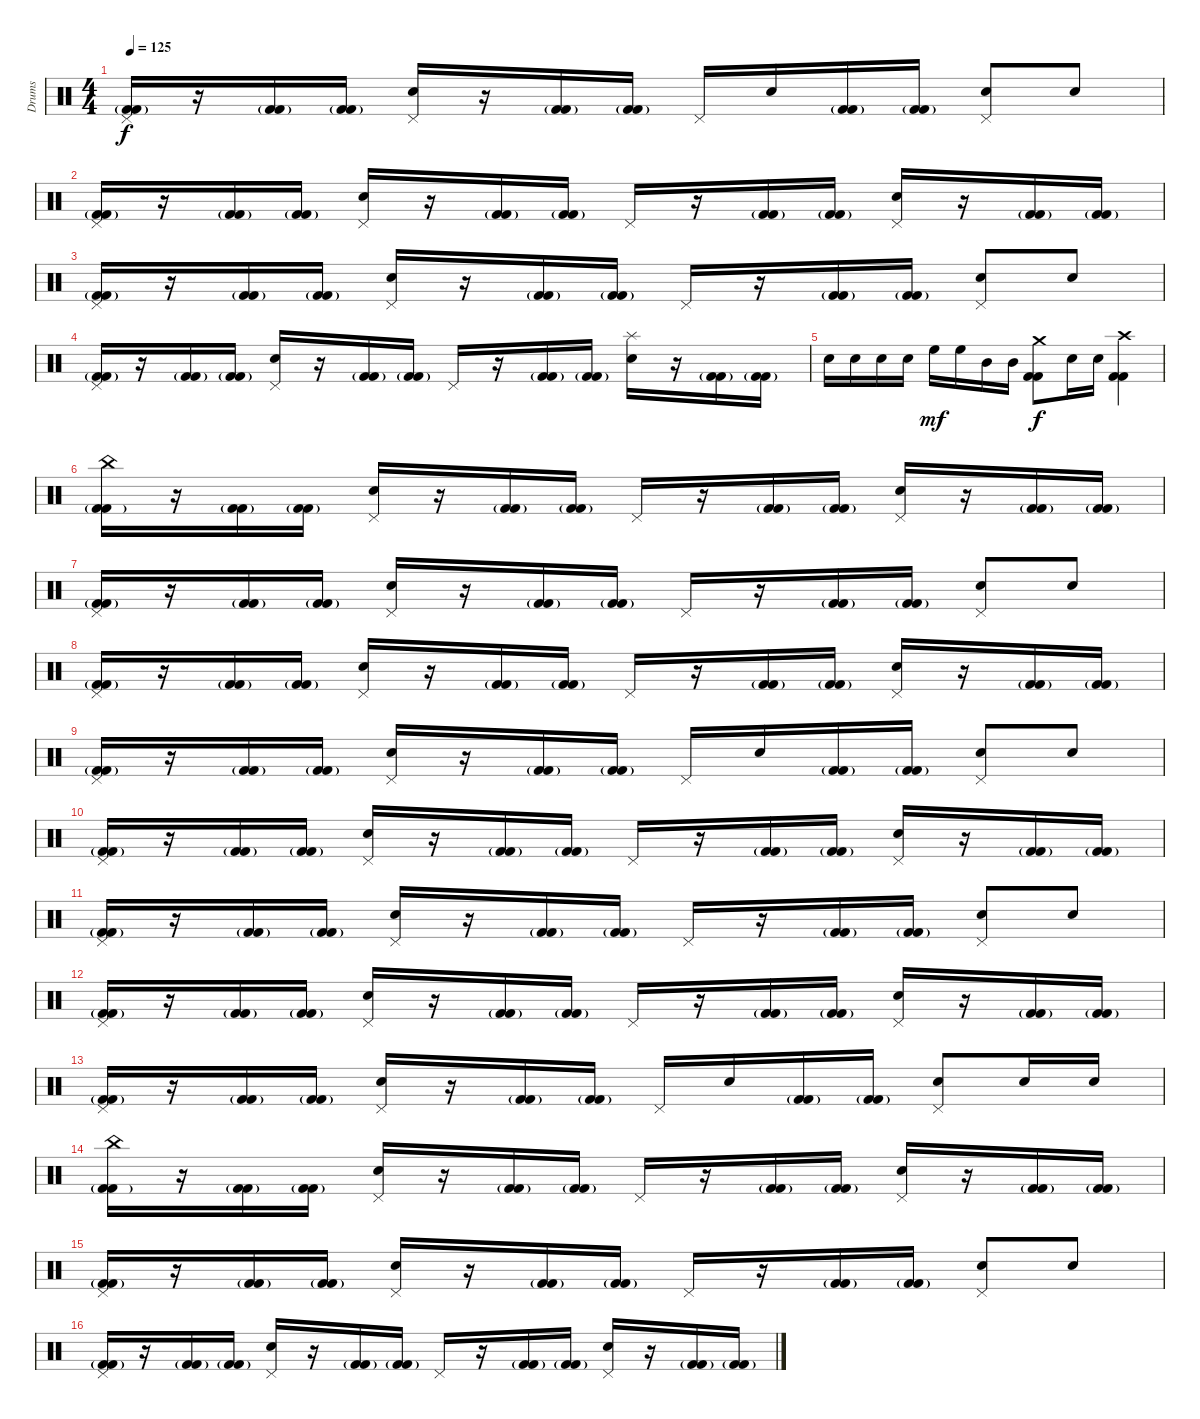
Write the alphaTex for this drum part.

\track ("Drums" "Drums") {instrument percussion}
\staff {score}
\articulation defaults
\ts (4 4)
\tempo 125
\clef neutral
\ks c
("Pedal Hi-Hat (hit)" "Kick (hit) 2"{g} "Kick (hit) 2").16{dy f} r.16 ("Kick (hit) 2"{g} "Kick (hit) 2").16 ("Kick (hit) 2"{g} "Kick (hit) 2").16 ("Pedal Hi-Hat (hit)" "Electric Snare (hit)").16 r.16 ("Kick (hit) 2"{g} "Kick (hit) 2").16 ("Kick (hit) 2"{g} "Kick (hit) 2").16 "Pedal Hi-Hat (hit)".16 "Electric Snare (hit)".16 ("Kick (hit) 2"{g} "Kick (hit) 2").16 ("Kick (hit) 2"{g} "Kick (hit) 2").16 ("Pedal Hi-Hat (hit)" "Electric Snare (hit)").8 "Electric Snare (hit)".8 |
("Pedal Hi-Hat (hit)" "Kick (hit) 2"{g} "Kick (hit) 2").16 r.16 ("Kick (hit) 2"{g} "Kick (hit) 2").16 ("Kick (hit) 2"{g} "Kick (hit) 2").16 ("Pedal Hi-Hat (hit)" "Electric Snare (hit)").16 r.16 ("Kick (hit) 2"{g} "Kick (hit) 2").16 ("Kick (hit) 2"{g} "Kick (hit) 2").16 "Pedal Hi-Hat (hit)".16 r.16 ("Kick (hit) 2"{g} "Kick (hit) 2").16 ("Kick (hit) 2"{g} "Kick (hit) 2").16 ("Pedal Hi-Hat (hit)" "Electric Snare (hit)").16 r.16 ("Kick (hit) 2"{g} "Kick (hit) 2").16 ("Kick (hit) 2"{g} "Kick (hit) 2").16 |
("Pedal Hi-Hat (hit)" "Kick (hit) 2"{g} "Kick (hit) 2").16 r.16 ("Kick (hit) 2"{g} "Kick (hit) 2").16 ("Kick (hit) 2"{g} "Kick (hit) 2").16 ("Pedal Hi-Hat (hit)" "Electric Snare (hit)").16 r.16 ("Kick (hit) 2"{g} "Kick (hit) 2").16 ("Kick (hit) 2"{g} "Kick (hit) 2").16 "Pedal Hi-Hat (hit)".16 r.16 ("Kick (hit) 2"{g} "Kick (hit) 2").16 ("Kick (hit) 2"{g} "Kick (hit) 2").16 ("Pedal Hi-Hat (hit)" "Electric Snare (hit)").8 "Electric Snare (hit)".8 |
("Pedal Hi-Hat (hit)" "Kick (hit) 2"{g} "Kick (hit) 2").16 r.16 ("Kick (hit) 2"{g} "Kick (hit) 2").16 ("Kick (hit) 2"{g} "Kick (hit) 2").16 ("Pedal Hi-Hat (hit)" "Electric Snare (hit)").16 r.16 ("Kick (hit) 2"{g} "Kick (hit) 2").16 ("Kick (hit) 2"{g} "Kick (hit) 2").16 "Pedal Hi-Hat (hit)".16 r.16 ("Kick (hit) 2"{g} "Kick (hit) 2").16 ("Kick (hit) 2"{g} "Kick (hit) 2").16 ("Splash (hit)" "Electric Snare (hit)").16 r.16 ("Kick (hit) 2"{g} "Kick (hit) 2").16 ("Kick (hit) 2"{g} "Kick (hit) 2").16 |
"Electric Snare (hit)".16 "Electric Snare (hit)".16 "Electric Snare (hit)".16 "Electric Snare (hit)".16 "High Floor Tom (hit)".16{dy mf} "High Floor Tom (hit)".16 "Mid Tom (hit)".16 "Mid Tom (hit)".16 ("Crash medium (hit)" "Kick (hit) 2" "Kick (hit) 2").8{dy f} "Electric Snare (hit)".16 "Electric Snare (hit)".16 ("Crash high (hit)" "Kick (hit) 2" "Kick (hit) 2").4 |
("China (hit)" "Kick (hit) 2"{g} "Kick (hit) 2").16 r.16 ("Kick (hit) 2"{g} "Kick (hit) 2").16 ("Kick (hit) 2"{g} "Kick (hit) 2").16 ("Pedal Hi-Hat (hit)" "Electric Snare (hit)").16 r.16 ("Kick (hit) 2"{g} "Kick (hit) 2").16 ("Kick (hit) 2"{g} "Kick (hit) 2").16 "Pedal Hi-Hat (hit)".16 r.16 ("Kick (hit) 2"{g} "Kick (hit) 2").16 ("Kick (hit) 2"{g} "Kick (hit) 2").16 ("Pedal Hi-Hat (hit)" "Electric Snare (hit)").16 r.16 ("Kick (hit) 2"{g} "Kick (hit) 2").16 ("Kick (hit) 2"{g} "Kick (hit) 2").16 |
("Pedal Hi-Hat (hit)" "Kick (hit) 2"{g} "Kick (hit) 2").16 r.16 ("Kick (hit) 2"{g} "Kick (hit) 2").16 ("Kick (hit) 2"{g} "Kick (hit) 2").16 ("Pedal Hi-Hat (hit)" "Electric Snare (hit)").16 r.16 ("Kick (hit) 2"{g} "Kick (hit) 2").16 ("Kick (hit) 2"{g} "Kick (hit) 2").16 "Pedal Hi-Hat (hit)".16 r.16 ("Kick (hit) 2"{g} "Kick (hit) 2").16 ("Kick (hit) 2"{g} "Kick (hit) 2").16 ("Pedal Hi-Hat (hit)" "Electric Snare (hit)").8 "Electric Snare (hit)".8 |
("Pedal Hi-Hat (hit)" "Kick (hit) 2"{g} "Kick (hit) 2").16 r.16 ("Kick (hit) 2"{g} "Kick (hit) 2").16 ("Kick (hit) 2"{g} "Kick (hit) 2").16 ("Pedal Hi-Hat (hit)" "Electric Snare (hit)").16 r.16 ("Kick (hit) 2"{g} "Kick (hit) 2").16 ("Kick (hit) 2"{g} "Kick (hit) 2").16 "Pedal Hi-Hat (hit)".16 r.16 ("Kick (hit) 2"{g} "Kick (hit) 2").16 ("Kick (hit) 2"{g} "Kick (hit) 2").16 ("Pedal Hi-Hat (hit)" "Electric Snare (hit)").16 r.16 ("Kick (hit) 2"{g} "Kick (hit) 2").16 ("Kick (hit) 2"{g} "Kick (hit) 2").16 |
("Pedal Hi-Hat (hit)" "Kick (hit) 2"{g} "Kick (hit) 2").16 r.16 ("Kick (hit) 2"{g} "Kick (hit) 2").16 ("Kick (hit) 2"{g} "Kick (hit) 2").16 ("Pedal Hi-Hat (hit)" "Electric Snare (hit)").16 r.16 ("Kick (hit) 2"{g} "Kick (hit) 2").16 ("Kick (hit) 2"{g} "Kick (hit) 2").16 "Pedal Hi-Hat (hit)".16 "Electric Snare (hit)".16 ("Kick (hit) 2"{g} "Kick (hit) 2").16 ("Kick (hit) 2"{g} "Kick (hit) 2").16 ("Pedal Hi-Hat (hit)" "Electric Snare (hit)").8 "Electric Snare (hit)".8 |
("Pedal Hi-Hat (hit)" "Kick (hit) 2"{g} "Kick (hit) 2").16 r.16 ("Kick (hit) 2"{g} "Kick (hit) 2").16 ("Kick (hit) 2"{g} "Kick (hit) 2").16 ("Pedal Hi-Hat (hit)" "Electric Snare (hit)").16 r.16 ("Kick (hit) 2"{g} "Kick (hit) 2").16 ("Kick (hit) 2"{g} "Kick (hit) 2").16 "Pedal Hi-Hat (hit)".16 r.16 ("Kick (hit) 2"{g} "Kick (hit) 2").16 ("Kick (hit) 2"{g} "Kick (hit) 2").16 ("Pedal Hi-Hat (hit)" "Electric Snare (hit)").16 r.16 ("Kick (hit) 2"{g} "Kick (hit) 2").16 ("Kick (hit) 2"{g} "Kick (hit) 2").16 |
("Pedal Hi-Hat (hit)" "Kick (hit) 2"{g} "Kick (hit) 2").16 r.16 ("Kick (hit) 2"{g} "Kick (hit) 2").16 ("Kick (hit) 2"{g} "Kick (hit) 2").16 ("Pedal Hi-Hat (hit)" "Electric Snare (hit)").16 r.16 ("Kick (hit) 2"{g} "Kick (hit) 2").16 ("Kick (hit) 2"{g} "Kick (hit) 2").16 "Pedal Hi-Hat (hit)".16 r.16 ("Kick (hit) 2"{g} "Kick (hit) 2").16 ("Kick (hit) 2"{g} "Kick (hit) 2").16 ("Pedal Hi-Hat (hit)" "Electric Snare (hit)").8 "Electric Snare (hit)".8 |
("Pedal Hi-Hat (hit)" "Kick (hit) 2"{g} "Kick (hit) 2").16 r.16 ("Kick (hit) 2"{g} "Kick (hit) 2").16 ("Kick (hit) 2"{g} "Kick (hit) 2").16 ("Pedal Hi-Hat (hit)" "Electric Snare (hit)").16 r.16 ("Kick (hit) 2"{g} "Kick (hit) 2").16 ("Kick (hit) 2"{g} "Kick (hit) 2").16 "Pedal Hi-Hat (hit)".16 r.16 ("Kick (hit) 2"{g} "Kick (hit) 2").16 ("Kick (hit) 2"{g} "Kick (hit) 2").16 ("Pedal Hi-Hat (hit)" "Electric Snare (hit)").16 r.16 ("Kick (hit) 2"{g} "Kick (hit) 2").16 ("Kick (hit) 2"{g} "Kick (hit) 2").16 |
("Pedal Hi-Hat (hit)" "Kick (hit) 2"{g} "Kick (hit) 2").16 r.16 ("Kick (hit) 2"{g} "Kick (hit) 2").16 ("Kick (hit) 2"{g} "Kick (hit) 2").16 ("Pedal Hi-Hat (hit)" "Electric Snare (hit)").16 r.16 ("Kick (hit) 2"{g} "Kick (hit) 2").16 ("Kick (hit) 2"{g} "Kick (hit) 2").16 "Pedal Hi-Hat (hit)".16 "Electric Snare (hit)".16 ("Kick (hit) 2"{g} "Kick (hit) 2").16 ("Kick (hit) 2"{g} "Kick (hit) 2").16 ("Pedal Hi-Hat (hit)" "Electric Snare (hit)").8 "Electric Snare (hit)".16 "Electric Snare (hit)".16 |
("China (hit)" "Kick (hit) 2"{g} "Kick (hit) 2").16 r.16 ("Kick (hit) 2"{g} "Kick (hit) 2").16 ("Kick (hit) 2"{g} "Kick (hit) 2").16 ("Pedal Hi-Hat (hit)" "Electric Snare (hit)").16 r.16 ("Kick (hit) 2"{g} "Kick (hit) 2").16 ("Kick (hit) 2"{g} "Kick (hit) 2").16 "Pedal Hi-Hat (hit)".16 r.16 ("Kick (hit) 2"{g} "Kick (hit) 2").16 ("Kick (hit) 2"{g} "Kick (hit) 2").16 ("Pedal Hi-Hat (hit)" "Electric Snare (hit)").16 r.16 ("Kick (hit) 2"{g} "Kick (hit) 2").16 ("Kick (hit) 2"{g} "Kick (hit) 2").16 |
("Pedal Hi-Hat (hit)" "Kick (hit) 2"{g} "Kick (hit) 2").16 r.16 ("Kick (hit) 2"{g} "Kick (hit) 2").16 ("Kick (hit) 2"{g} "Kick (hit) 2").16 ("Pedal Hi-Hat (hit)" "Electric Snare (hit)").16 r.16 ("Kick (hit) 2"{g} "Kick (hit) 2").16 ("Kick (hit) 2"{g} "Kick (hit) 2").16 "Pedal Hi-Hat (hit)".16 r.16 ("Kick (hit) 2"{g} "Kick (hit) 2").16 ("Kick (hit) 2"{g} "Kick (hit) 2").16 ("Pedal Hi-Hat (hit)" "Electric Snare (hit)").8 "Electric Snare (hit)".8 |
("Pedal Hi-Hat (hit)" "Kick (hit) 2"{g} "Kick (hit) 2").16 r.16 ("Kick (hit) 2"{g} "Kick (hit) 2").16 ("Kick (hit) 2"{g} "Kick (hit) 2").16 ("Pedal Hi-Hat (hit)" "Electric Snare (hit)").16 r.16 ("Kick (hit) 2"{g} "Kick (hit) 2").16 ("Kick (hit) 2"{g} "Kick (hit) 2").16 "Pedal Hi-Hat (hit)".16 r.16 ("Kick (hit) 2"{g} "Kick (hit) 2").16 ("Kick (hit) 2"{g} "Kick (hit) 2").16 ("Pedal Hi-Hat (hit)" "Electric Snare (hit)").16 r.16 ("Kick (hit) 2"{g} "Kick (hit) 2").16 ("Kick (hit) 2"{g} "Kick (hit) 2").16
